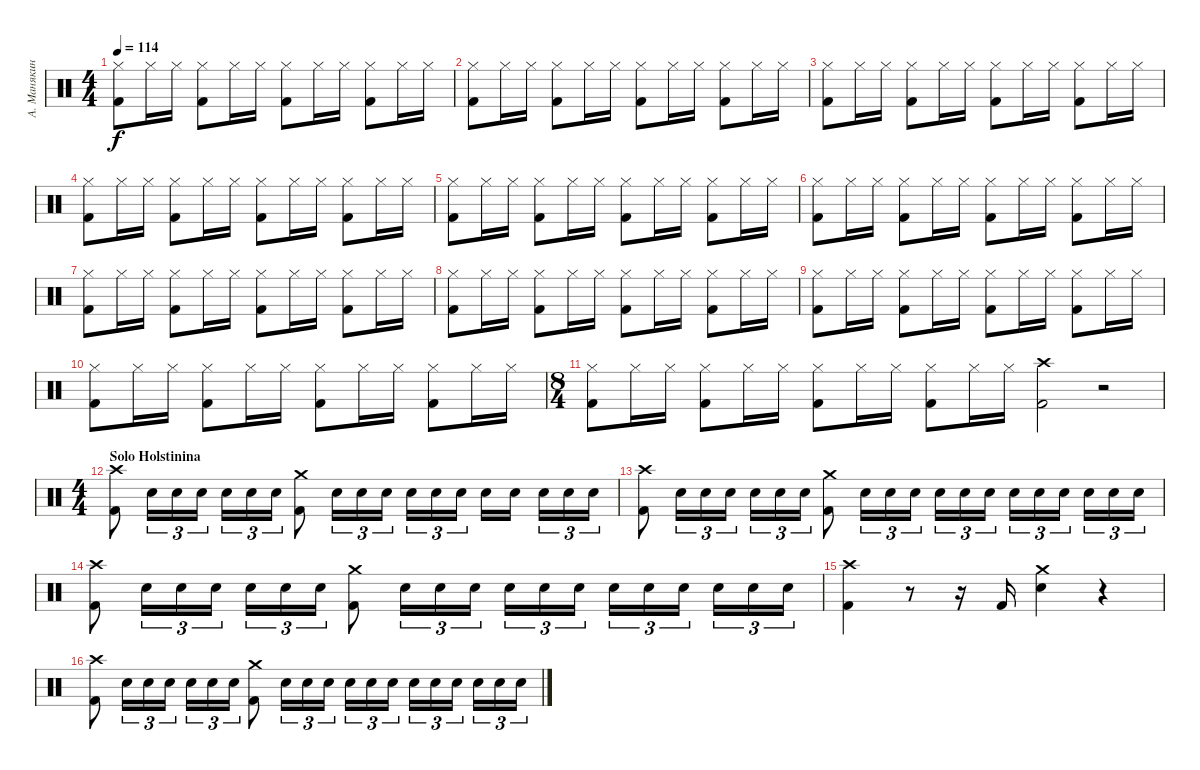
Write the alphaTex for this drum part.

\track ("А. Манякин" "А. Манякин") {instrument percussion}
\staff {score}
\articulation defaults
\ts (4 4)
\tempo 114
\clef neutral
\ks c
("Kick (hit) 2" "Hi-Hat (closed)").8{dy f} "Hi-Hat (closed)".16 "Hi-Hat (closed)".16 ("Kick (hit) 2" "Hi-Hat (closed)").8 "Hi-Hat (closed)".16 "Hi-Hat (closed)".16 ("Kick (hit) 2" "Hi-Hat (closed)").8 "Hi-Hat (closed)".16 "Hi-Hat (closed)".16 ("Kick (hit) 2" "Hi-Hat (closed)").8 "Hi-Hat (closed)".16 "Hi-Hat (closed)".16 |
("Kick (hit) 2" "Hi-Hat (closed)").8 "Hi-Hat (closed)".16 "Hi-Hat (closed)".16 ("Kick (hit) 2" "Hi-Hat (closed)").8 "Hi-Hat (closed)".16 "Hi-Hat (closed)".16 ("Kick (hit) 2" "Hi-Hat (closed)").8 "Hi-Hat (closed)".16 "Hi-Hat (closed)".16 ("Kick (hit) 2" "Hi-Hat (closed)").8 "Hi-Hat (closed)".16 "Hi-Hat (closed)".16 |
("Kick (hit) 2" "Hi-Hat (closed)").8 "Hi-Hat (closed)".16 "Hi-Hat (closed)".16 ("Kick (hit) 2" "Hi-Hat (closed)").8 "Hi-Hat (closed)".16 "Hi-Hat (closed)".16 ("Kick (hit) 2" "Hi-Hat (closed)").8 "Hi-Hat (closed)".16 "Hi-Hat (closed)".16 ("Kick (hit) 2" "Hi-Hat (closed)").8 "Hi-Hat (closed)".16 "Hi-Hat (closed)".16 |
("Kick (hit) 2" "Hi-Hat (closed)").8 "Hi-Hat (closed)".16 "Hi-Hat (closed)".16 ("Kick (hit) 2" "Hi-Hat (closed)").8 "Hi-Hat (closed)".16 "Hi-Hat (closed)".16 ("Kick (hit) 2" "Hi-Hat (closed)").8 "Hi-Hat (closed)".16 "Hi-Hat (closed)".16 ("Kick (hit) 2" "Hi-Hat (closed)").8 "Hi-Hat (closed)".16 "Hi-Hat (closed)".16 |
("Kick (hit) 2" "Hi-Hat (closed)").8 "Hi-Hat (closed)".16 "Hi-Hat (closed)".16 ("Kick (hit) 2" "Hi-Hat (closed)").8 "Hi-Hat (closed)".16 "Hi-Hat (closed)".16 ("Kick (hit) 2" "Hi-Hat (closed)").8 "Hi-Hat (closed)".16 "Hi-Hat (closed)".16 ("Kick (hit) 2" "Hi-Hat (closed)").8 "Hi-Hat (closed)".16 "Hi-Hat (closed)".16 |
("Kick (hit) 2" "Hi-Hat (closed)").8 "Hi-Hat (closed)".16 "Hi-Hat (closed)".16 ("Kick (hit) 2" "Hi-Hat (closed)").8 "Hi-Hat (closed)".16 "Hi-Hat (closed)".16 ("Kick (hit) 2" "Hi-Hat (closed)").8 "Hi-Hat (closed)".16 "Hi-Hat (closed)".16 ("Kick (hit) 2" "Hi-Hat (closed)").8 "Hi-Hat (closed)".16 "Hi-Hat (closed)".16 |
("Kick (hit) 2" "Hi-Hat (closed)").8 "Hi-Hat (closed)".16 "Hi-Hat (closed)".16 ("Kick (hit) 2" "Hi-Hat (closed)").8 "Hi-Hat (closed)".16 "Hi-Hat (closed)".16 ("Kick (hit) 2" "Hi-Hat (closed)").8 "Hi-Hat (closed)".16 "Hi-Hat (closed)".16 ("Kick (hit) 2" "Hi-Hat (closed)").8 "Hi-Hat (closed)".16 "Hi-Hat (closed)".16 |
("Kick (hit) 2" "Hi-Hat (closed)").8 "Hi-Hat (closed)".16 "Hi-Hat (closed)".16 ("Kick (hit) 2" "Hi-Hat (closed)").8 "Hi-Hat (closed)".16 "Hi-Hat (closed)".16 ("Kick (hit) 2" "Hi-Hat (closed)").8 "Hi-Hat (closed)".16 "Hi-Hat (closed)".16 ("Kick (hit) 2" "Hi-Hat (closed)").8 "Hi-Hat (closed)".16 "Hi-Hat (closed)".16 |
("Kick (hit) 2" "Hi-Hat (closed)").8 "Hi-Hat (closed)".16 "Hi-Hat (closed)".16 ("Kick (hit) 2" "Hi-Hat (closed)").8 "Hi-Hat (closed)".16 "Hi-Hat (closed)".16 ("Kick (hit) 2" "Hi-Hat (closed)").8 "Hi-Hat (closed)".16 "Hi-Hat (closed)".16 ("Kick (hit) 2" "Hi-Hat (closed)").8 "Hi-Hat (closed)".16 "Hi-Hat (closed)".16 |
("Kick (hit) 2" "Hi-Hat (closed)").8 "Hi-Hat (closed)".16 "Hi-Hat (closed)".16 ("Kick (hit) 2" "Hi-Hat (closed)").8 "Hi-Hat (closed)".16 "Hi-Hat (closed)".16 ("Kick (hit) 2" "Hi-Hat (closed)").8 "Hi-Hat (closed)".16 "Hi-Hat (closed)".16 ("Kick (hit) 2" "Hi-Hat (closed)").8 "Hi-Hat (closed)".16 "Hi-Hat (closed)".16 |
\ts (8 4)
("Kick (hit) 2" "Hi-Hat (closed)").8 "Hi-Hat (closed)".16 "Hi-Hat (closed)".16 ("Kick (hit) 2" "Hi-Hat (closed)").8 "Hi-Hat (closed)".16 "Hi-Hat (closed)".16 ("Kick (hit) 2" "Hi-Hat (closed)").8 "Hi-Hat (closed)".16 "Hi-Hat (closed)".16 ("Kick (hit) 2" "Hi-Hat (closed)").8 "Hi-Hat (closed)".16 "Hi-Hat (closed)".16 ("Crash high (hit)" "Kick (hit) 2").2 r.2 |
\ts (4 4)
\section ("" "Solo Holstinina")
("Kick (hit) 2" "Crash high (hit)").8 "Electric Snare (hit)".16{tu (3 2)} "Electric Snare (hit)".16{tu (3 2)} "Electric Snare (hit)".16{tu (3 2)} "Electric Snare (hit)".16{tu (3 2)} "Electric Snare (hit)".16{tu (3 2)} "Electric Snare (hit)".16{tu (3 2)} ("Kick (hit) 2" "Crash medium (hit)").8 "Electric Snare (hit)".16{tu (3 2)} "Electric Snare (hit)".16{tu (3 2)} "Electric Snare (hit)".16{tu (3 2)} "Electric Snare (hit)".16{tu (3 2)} "Electric Snare (hit)".16{tu (3 2)} "Electric Snare (hit)".16{tu (3 2)} "Electric Snare (hit)".16 "Electric Snare (hit)".16 "Electric Snare (hit)".16{tu (3 2)} "Electric Snare (hit)".16{tu (3 2)} "Electric Snare (hit)".16{tu (3 2)} |
("Kick (hit) 2" "Crash high (hit)").8 "Electric Snare (hit)".16{tu (3 2)} "Electric Snare (hit)".16{tu (3 2)} "Electric Snare (hit)".16{tu (3 2)} "Electric Snare (hit)".16{tu (3 2)} "Electric Snare (hit)".16{tu (3 2)} "Electric Snare (hit)".16{tu (3 2)} ("Kick (hit) 2" "Crash medium (hit)").8 "Electric Snare (hit)".16{tu (3 2)} "Electric Snare (hit)".16{tu (3 2)} "Electric Snare (hit)".16{tu (3 2)} "Electric Snare (hit)".16{tu (3 2)} "Electric Snare (hit)".16{tu (3 2)} "Electric Snare (hit)".16{tu (3 2)} "Electric Snare (hit)".16{tu (3 2)} "Electric Snare (hit)".16{tu (3 2)} "Electric Snare (hit)".16{tu (3 2)} "Electric Snare (hit)".16{tu (3 2)} "Electric Snare (hit)".16{tu (3 2)} "Electric Snare (hit)".16{tu (3 2)} |
("Kick (hit) 2" "Crash high (hit)").8 "Electric Snare (hit)".16{tu (3 2)} "Electric Snare (hit)".16{tu (3 2)} "Electric Snare (hit)".16{tu (3 2)} "Electric Snare (hit)".16{tu (3 2)} "Electric Snare (hit)".16{tu (3 2)} "Electric Snare (hit)".16{tu (3 2)} ("Kick (hit) 2" "Crash medium (hit)").8 "Electric Snare (hit)".16{tu (3 2)} "Electric Snare (hit)".16{tu (3 2)} "Electric Snare (hit)".16{tu (3 2)} "Electric Snare (hit)".16{tu (3 2)} "Electric Snare (hit)".16{tu (3 2)} "Electric Snare (hit)".16{tu (3 2)} "Electric Snare (hit)".16{tu (3 2)} "Electric Snare (hit)".16{tu (3 2)} "Electric Snare (hit)".16{tu (3 2)} "Electric Snare (hit)".16{tu (3 2)} "Electric Snare (hit)".16{tu (3 2)} "Electric Snare (hit)".16{tu (3 2)} |
("Kick (hit) 2" "Crash high (hit)").4 r.8 r.16 "Kick (hit) 2".16 ("Electric Snare (hit)" "Crash medium (hit)").4 r.4 |
("Kick (hit) 2" "Crash high (hit)").8 "Electric Snare (hit)".16{tu (3 2)} "Electric Snare (hit)".16{tu (3 2)} "Electric Snare (hit)".16{tu (3 2)} "Electric Snare (hit)".16{tu (3 2)} "Electric Snare (hit)".16{tu (3 2)} "Electric Snare (hit)".16{tu (3 2)} ("Kick (hit) 2" "Crash medium (hit)").8 "Electric Snare (hit)".16{tu (3 2)} "Electric Snare (hit)".16{tu (3 2)} "Electric Snare (hit)".16{tu (3 2)} "Electric Snare (hit)".16{tu (3 2)} "Electric Snare (hit)".16{tu (3 2)} "Electric Snare (hit)".16{tu (3 2)} "Electric Snare (hit)".16{tu (3 2)} "Electric Snare (hit)".16{tu (3 2)} "Electric Snare (hit)".16{tu (3 2)} "Electric Snare (hit)".16{tu (3 2)} "Electric Snare (hit)".16{tu (3 2)} "Electric Snare (hit)".16{tu (3 2)}
